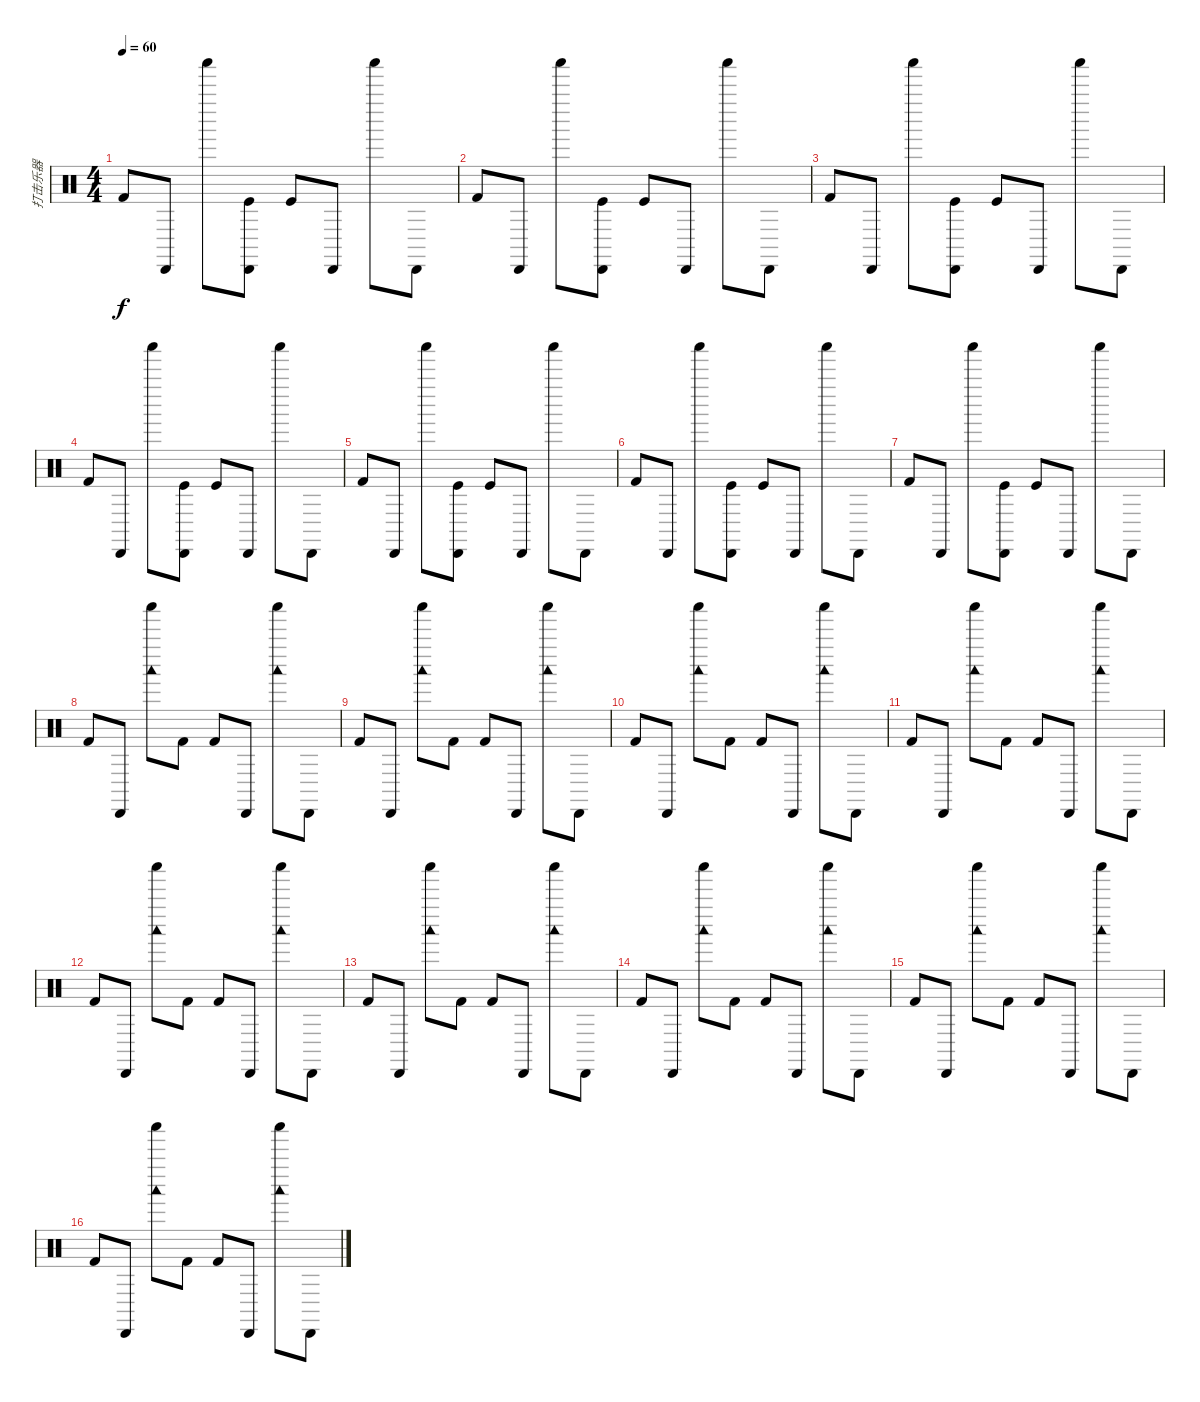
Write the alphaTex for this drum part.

\track ("打击乐器" "打击乐器") {instrument percussion}
\staff {score}
\articulation defaults
\ts (4 4)
\tempo 60
\clef neutral
\ks c "Kick (hit) 2".8{dy f volume 15} "Cabasa (hit)".8{volume 12} "Shaker (hit)".8{volume 9}
("Kick (hit)" "Cabasa (hit)").8{volume 15} "Kick (hit)".8{volume 15} "Cabasa (hit)".8{volume 12} "Shaker (hit)".8{volume 9} "Cabasa (hit)".8{volume 12} |
"Kick (hit) 2".8{volume 15} "Cabasa (hit)".8{volume 12} "Shaker (hit)".8{volume 9} ("Kick (hit)" "Cabasa (hit)").8{volume 15} "Kick (hit)".8{volume 15} "Cabasa (hit)".8{volume 12} "Shaker (hit)".8{volume 9} "Cabasa (hit)".8{volume 12} |
"Kick (hit) 2".8{volume 15} "Cabasa (hit)".8{volume 12} "Shaker (hit)".8{volume 9} ("Kick (hit)" "Cabasa (hit)").8{volume 15} "Kick (hit)".8{volume 15} "Cabasa (hit)".8{volume 12} "Shaker (hit)".8{volume 9} "Cabasa (hit)".8{volume 12} |
"Kick (hit) 2".8{volume 15} "Cabasa (hit)".8{volume 12} "Shaker (hit)".8{volume 9} ("Kick (hit)" "Cabasa (hit)").8{volume 15} "Kick (hit)".8{volume 15} "Cabasa (hit)".8{volume 12} "Shaker (hit)".8{volume 9} "Cabasa (hit)".8{volume 12} |
"Kick (hit) 2".8{volume 15} "Cabasa (hit)".8{volume 12} "Shaker (hit)".8{volume 9} ("Kick (hit)" "Cabasa (hit)").8{volume 15} "Kick (hit)".8{volume 15} "Cabasa (hit)".8{volume 12} "Shaker (hit)".8{volume 9} "Cabasa (hit)".8{volume 12} |
"Kick (hit) 2".8{volume 15} "Cabasa (hit)".8{volume 12} "Shaker (hit)".8{volume 9} ("Kick (hit)" "Cabasa (hit)").8{volume 15} "Kick (hit)".8{volume 15} "Cabasa (hit)".8{volume 12} "Shaker (hit)".8{volume 9} "Cabasa (hit)".8{volume 12} |
"Kick (hit) 2".8{volume 15} "Cabasa (hit)".8{volume 12} "Shaker (hit)".8{volume 9} ("Kick (hit)" "Cabasa (hit)").8{volume 15} "Kick (hit)".8{volume 15} "Cabasa (hit)".8{volume 12} "Shaker (hit)".8{volume 9} "Cabasa (hit)".8{volume 12} |
"Kick (hit) 2".8 "Cabasa (hit)".8 ("Shaker (hit)" "Woodblock low (hit)").8 "Kick (hit) 2".8 "Kick (hit) 2".8 "Cabasa (hit)".8 ("Shaker (hit)" "Woodblock low (hit)").8 "Cabasa (hit)".8 |
"Kick (hit) 2".8 "Cabasa (hit)".8 ("Shaker (hit)" "Woodblock low (hit)").8 "Kick (hit) 2".8 "Kick (hit) 2".8 "Cabasa (hit)".8 ("Shaker (hit)" "Woodblock low (hit)").8 "Cabasa (hit)".8 |
"Kick (hit) 2".8 "Cabasa (hit)".8 ("Shaker (hit)" "Woodblock low (hit)").8 "Kick (hit) 2".8 "Kick (hit) 2".8 "Cabasa (hit)".8 ("Shaker (hit)" "Woodblock low (hit)").8 "Cabasa (hit)".8 |
"Kick (hit) 2".8 "Cabasa (hit)".8 ("Shaker (hit)" "Woodblock low (hit)").8 "Kick (hit) 2".8 "Kick (hit) 2".8 "Cabasa (hit)".8 ("Shaker (hit)" "Woodblock low (hit)").8 "Cabasa (hit)".8 |
"Kick (hit) 2".8 "Cabasa (hit)".8 ("Shaker (hit)" "Woodblock low (hit)").8 "Kick (hit) 2".8 "Kick (hit) 2".8 "Cabasa (hit)".8 ("Shaker (hit)" "Woodblock low (hit)").8 "Cabasa (hit)".8 |
"Kick (hit) 2".8 "Cabasa (hit)".8 ("Shaker (hit)" "Woodblock low (hit)").8 "Kick (hit) 2".8 "Kick (hit) 2".8 "Cabasa (hit)".8 ("Shaker (hit)" "Woodblock low (hit)").8 "Cabasa (hit)".8 |
"Kick (hit) 2".8 "Cabasa (hit)".8 ("Shaker (hit)" "Woodblock low (hit)").8 "Kick (hit) 2".8 "Kick (hit) 2".8 "Cabasa (hit)".8 ("Shaker (hit)" "Woodblock low (hit)").8 "Cabasa (hit)".8 |
"Kick (hit) 2".8 "Cabasa (hit)".8 ("Shaker (hit)" "Woodblock low (hit)").8 "Kick (hit) 2".8 "Kick (hit) 2".8 "Cabasa (hit)".8 ("Shaker (hit)" "Woodblock low (hit)").8 "Cabasa (hit)".8 |
"Kick (hit) 2".8 "Cabasa (hit)".8 ("Shaker (hit)" "Woodblock low (hit)").8 "Kick (hit) 2".8 "Kick (hit) 2".8 "Cabasa (hit)".8 ("Shaker (hit)" "Woodblock low (hit)").8 "Cabasa (hit)".8
